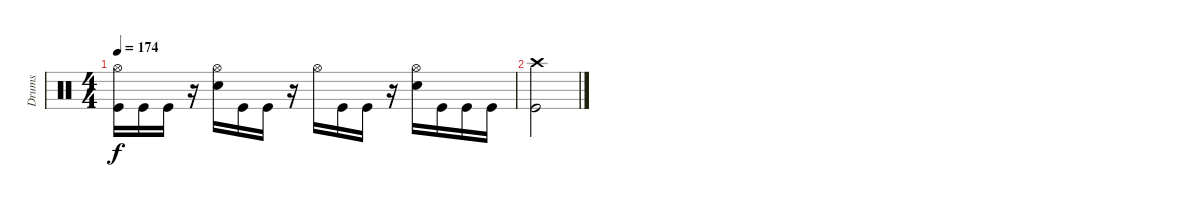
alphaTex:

\track ("Drums" "Drums") {instrument percussion}
\staff {score}
\articulation defaults
\ts (4 4)
\tempo 174
\clef neutral
\ks c
("Hi-Hat (open)" "Kick (hit)").16{dy f} "Kick (hit)".16 "Kick (hit)".16 r.16 ("Hi-Hat (open)" "Electric Snare (hit)").16 "Kick (hit)".16 "Kick (hit)".16 r.16 "Hi-Hat (open)".16 "Kick (hit)".16 "Kick (hit)".16 r.16 ("Hi-Hat (open)" "Electric Snare (hit)").16 "Kick (hit)".16 "Kick (hit)".16 "Kick (hit)".16 |
("Crash high (hit)" "Kick (hit)").2
